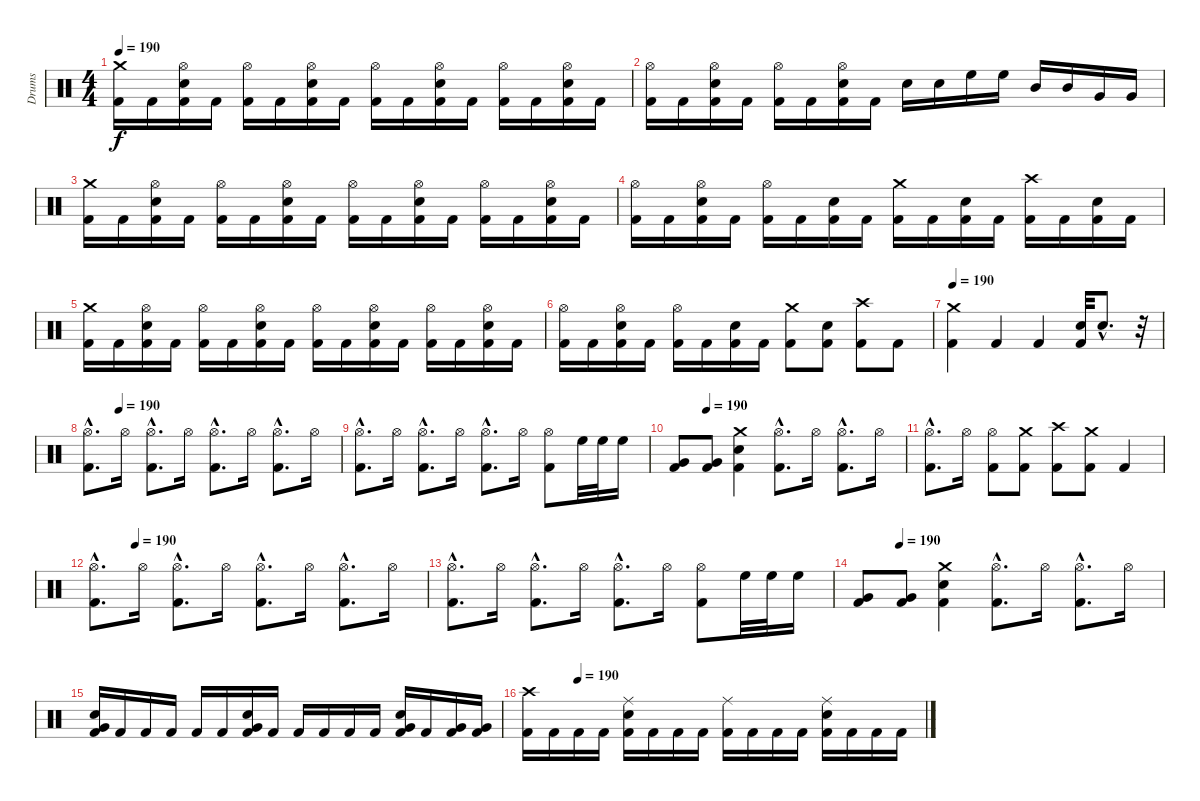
\track ("Drums" "Drums") {instrument percussion}
\staff {score}
\articulation defaults
\ts (4 4)
\tempo 190
\clef neutral
\ks c
("Crash medium (hit)" "Kick (hit) 2").16{dy f} "Kick (hit) 2".16 ("Hi-Hat (open)" "Electric Snare (hit)" "Kick (hit) 2").16 "Kick (hit) 2".16 ("Hi-Hat (open)" "Kick (hit) 2").16 "Kick (hit) 2".16 ("Hi-Hat (open)" "Electric Snare (hit)" "Kick (hit) 2").16 "Kick (hit) 2".16 ("Hi-Hat (open)" "Kick (hit) 2").16 "Kick (hit) 2".16 ("Hi-Hat (open)" "Electric Snare (hit)" "Kick (hit) 2").16 "Kick (hit) 2".16 ("Hi-Hat (open)" "Kick (hit) 2").16 "Kick (hit) 2".16 ("Hi-Hat (open)" "Electric Snare (hit)" "Kick (hit) 2").16 "Kick (hit) 2".16 |
("Hi-Hat (open)" "Kick (hit) 2").16 "Kick (hit) 2".16 ("Hi-Hat (open)" "Electric Snare (hit)" "Kick (hit) 2").16 "Kick (hit) 2".16 ("Hi-Hat (open)" "Kick (hit) 2").16 "Kick (hit) 2".16 ("Hi-Hat (open)" "Electric Snare (hit)" "Kick (hit) 2").16 "Kick (hit) 2".16 "Electric Snare (hit)".16 "Electric Snare (hit)".16 "High Floor Tom (hit)".16 "High Floor Tom (hit)".16 "Mid Tom (hit)".16 "Mid Tom (hit)".16 "Very Low Tom (hit)".16 "Very Low Tom (hit)".16 |
("Crash medium (hit)" "Kick (hit) 2").16 "Kick (hit) 2".16 ("Hi-Hat (open)" "Electric Snare (hit)" "Kick (hit) 2").16 "Kick (hit) 2".16 ("Hi-Hat (open)" "Kick (hit) 2").16 "Kick (hit) 2".16 ("Hi-Hat (open)" "Electric Snare (hit)" "Kick (hit) 2").16 "Kick (hit) 2".16 ("Hi-Hat (open)" "Kick (hit) 2").16 "Kick (hit) 2".16 ("Hi-Hat (open)" "Electric Snare (hit)" "Kick (hit) 2").16 "Kick (hit) 2".16 ("Hi-Hat (open)" "Kick (hit) 2").16 "Kick (hit) 2".16 ("Hi-Hat (open)" "Electric Snare (hit)" "Kick (hit) 2").16 "Kick (hit) 2".16 |
("Hi-Hat (open)" "Kick (hit) 2").16 "Kick (hit) 2".16 ("Hi-Hat (open)" "Electric Snare (hit)" "Kick (hit) 2").16 "Kick (hit) 2".16 ("Hi-Hat (open)" "Kick (hit) 2").16 "Kick (hit) 2".16 ("Electric Snare (hit)" "Kick (hit) 2").16 "Kick (hit) 2".16 ("Crash medium (hit)" "Kick (hit) 2").16 "Kick (hit) 2".16 ("Electric Snare (hit)" "Kick (hit) 2").16 "Kick (hit) 2".16 ("Crash high (hit)" "Kick (hit) 2").16 "Kick (hit) 2".16 ("Electric Snare (hit)" "Kick (hit) 2").16 "Kick (hit) 2".16 |
("Crash medium (hit)" "Kick (hit) 2").16 "Kick (hit) 2".16 ("Hi-Hat (open)" "Electric Snare (hit)" "Kick (hit) 2").16 "Kick (hit) 2".16 ("Hi-Hat (open)" "Kick (hit) 2").16 "Kick (hit) 2".16 ("Hi-Hat (open)" "Electric Snare (hit)" "Kick (hit) 2").16 "Kick (hit) 2".16 ("Hi-Hat (open)" "Kick (hit) 2").16 "Kick (hit) 2".16 ("Hi-Hat (open)" "Electric Snare (hit)" "Kick (hit) 2").16 "Kick (hit) 2".16 ("Hi-Hat (open)" "Kick (hit) 2").16 "Kick (hit) 2".16 ("Hi-Hat (open)" "Electric Snare (hit)" "Kick (hit) 2").16 "Kick (hit) 2".16 |
("Hi-Hat (open)" "Kick (hit) 2").16 "Kick (hit) 2".16 ("Hi-Hat (open)" "Electric Snare (hit)" "Kick (hit) 2").16 "Kick (hit) 2".16 ("Hi-Hat (open)" "Kick (hit) 2").16 "Kick (hit) 2".16 ("Electric Snare (hit)" "Kick (hit) 2").16 "Kick (hit) 2".16 ("Crash medium (hit)" "Kick (hit) 2").8 ("Electric Snare (hit)" "Kick (hit) 2").8 ("Crash high (hit)" "Kick (hit) 2").8 "Kick (hit) 2".8 |
\tempo 190
("Crash medium (hit)" "Kick (hit) 2").4 "Kick (hit) 2".4 "Kick (hit) 2".4 ("Electric Snare (hit)" "Kick (hit) 2").32 "Electric Snare (hit)"{hac}.8{d} r.32 |
\tempo (190 0.125)
("Hi-Hat (open)"{hac} "Kick (hit) 2"{hac}).8{d} "Hi-Hat (open)".16 ("Hi-Hat (open)"{hac} "Kick (hit) 2"{hac}).8{d} "Hi-Hat (open)".16 ("Hi-Hat (open)"{hac} "Kick (hit) 2"{hac}).8{d} "Hi-Hat (open)".16 ("Hi-Hat (open)"{hac} "Kick (hit) 2"{hac}).8{d} "Hi-Hat (open)".16 |
("Hi-Hat (open)"{hac} "Kick (hit) 2"{hac}).8{d} "Hi-Hat (open)".16 ("Hi-Hat (open)"{hac} "Kick (hit) 2"{hac}).8{d} "Hi-Hat (open)".16 ("Hi-Hat (open)"{hac} "Kick (hit) 2"{hac}).8{d} "Hi-Hat (open)".16 ("Hi-Hat (open)" "Kick (hit) 2").8 "High Floor Tom (hit)".32 "High Floor Tom (hit)".32 "High Floor Tom (hit)".16 |
\tempo (190 0.125)
("Very Low Tom (hit)" "Kick (hit) 2").8 ("Very Low Tom (hit)" "Kick (hit) 2").8 ("Crash medium (hit)" "Electric Snare (hit)" "Kick (hit) 2").4 ("Hi-Hat (open)"{hac} "Kick (hit) 2"{hac}).8{d} "Hi-Hat (open)".16 ("Hi-Hat (open)"{hac} "Kick (hit) 2"{hac}).8{d} "Hi-Hat (open)".16 |
("Hi-Hat (open)"{hac} "Kick (hit) 2"{hac}).8{d} "Hi-Hat (open)".16 ("Hi-Hat (open)" "Kick (hit) 2").8 ("Crash medium (hit)" "Kick (hit) 2").8 ("Crash high (hit)" "Kick (hit) 2").8 ("Crash medium (hit)" "Kick (hit) 2").8 "Kick (hit) 2".4 |
\tempo (190 0.125)
("Hi-Hat (open)"{hac} "Kick (hit) 2"{hac}).8{d} "Hi-Hat (open)".16 ("Hi-Hat (open)"{hac} "Kick (hit) 2"{hac}).8{d} "Hi-Hat (open)".16 ("Hi-Hat (open)"{hac} "Kick (hit) 2"{hac}).8{d} "Hi-Hat (open)".16 ("Hi-Hat (open)"{hac} "Kick (hit) 2"{hac}).8{d} "Hi-Hat (open)".16 |
("Hi-Hat (open)"{hac} "Kick (hit) 2"{hac}).8{d} "Hi-Hat (open)".16 ("Hi-Hat (open)"{hac} "Kick (hit) 2"{hac}).8{d} "Hi-Hat (open)".16 ("Hi-Hat (open)"{hac} "Kick (hit) 2"{hac}).8{d} "Hi-Hat (open)".16 ("Hi-Hat (open)" "Kick (hit) 2").8 "High Floor Tom (hit)".32 "High Floor Tom (hit)".32 "High Floor Tom (hit)".16 |
\tempo (190 0.125)
("Very Low Tom (hit)" "Kick (hit) 2").8 ("Very Low Tom (hit)" "Kick (hit) 2").8 ("Crash medium (hit)" "Electric Snare (hit)" "Kick (hit) 2").4 ("Hi-Hat (open)"{hac} "Kick (hit) 2"{hac}).8{d} "Hi-Hat (open)".16 ("Hi-Hat (open)"{hac} "Kick (hit) 2"{hac}).8{d} "Hi-Hat (open)".16 |
("Electric Snare (hit)" "Very Low Tom (hit)" "Kick (hit) 2").16 "Kick (hit) 2".16 "Kick (hit) 2".16 "Kick (hit) 2".16 "Kick (hit) 2".16 "Kick (hit) 2".16 ("Electric Snare (hit)" "Very Low Tom (hit)" "Kick (hit) 2").16 "Kick (hit) 2".16 "Kick (hit) 2".16 "Kick (hit) 2".16 "Kick (hit) 2".16 "Kick (hit) 2".16 ("Electric Snare (hit)" "Very Low Tom (hit)" "Kick (hit) 2").16 "Kick (hit) 2".16 ("Very Low Tom (hit)" "Kick (hit) 2").16 ("Very Low Tom (hit)" "Kick (hit) 2").16 |
\tempo (190 0.125)
("Crash high (hit)" "Kick (hit) 2").16 "Kick (hit) 2".16 "Kick (hit) 2".16 "Kick (hit) 2".16 ("Ride (middle)" "Electric Snare (hit)" "Kick (hit) 2").16 "Kick (hit) 2".16 "Kick (hit) 2".16 "Kick (hit) 2".16 ("Ride (middle)" "Kick (hit) 2").16 "Kick (hit) 2".16 "Kick (hit) 2".16 "Kick (hit) 2".16 ("Ride (middle)" "Electric Snare (hit)" "Kick (hit) 2").16 "Kick (hit) 2".16 "Kick (hit) 2".16 "Kick (hit) 2".16
